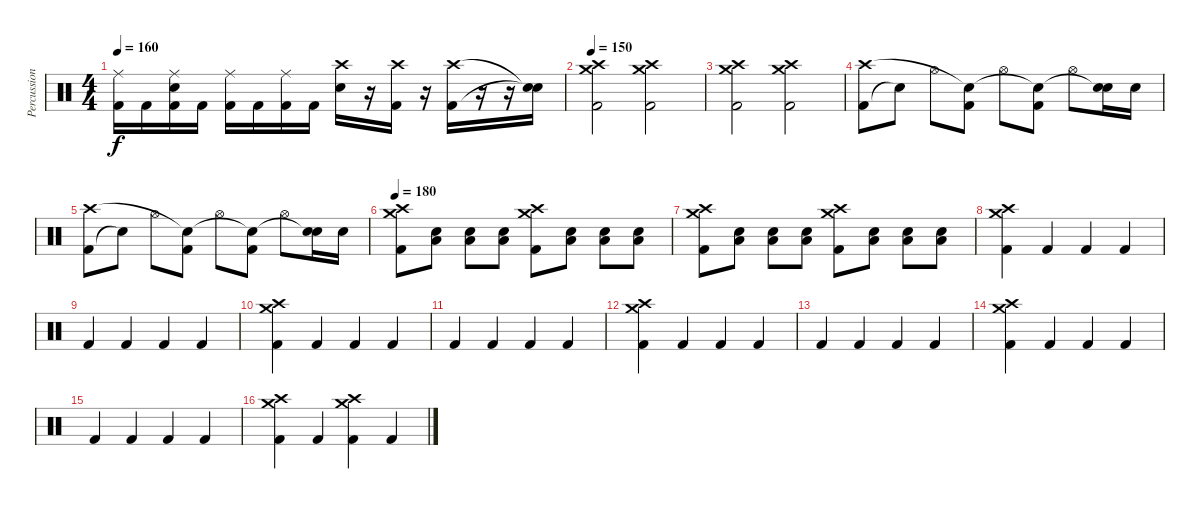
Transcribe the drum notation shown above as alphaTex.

\track ("Percussions" "Percussion") {instrument percussion}
\staff {score}
\articulation defaults
\ts (4 4)
\tempo 160
\clef neutral
\ks c
("Ride (middle)" "Kick (hit) 2").16{dy f} "Kick (hit) 2".16 ("Ride (middle)" "Electric Snare (hit)" "Kick (hit) 2"{t}).16 "Kick (hit) 2".16 ("Ride (middle)" "Kick (hit) 2").16 "Kick (hit) 2".16 ("Ride (middle)" "Kick (hit) 2").16 "Kick (hit) 2".16 ("Crash high (hit)" "Electric Snare (hit)").16 r.16 ("Crash high (hit)" "Kick (hit) 2").16 r.16 ("Crash high (hit)" "Kick (hit) 2").16 r.16 r.16 ("Snare (hit)"{t} "Snare (hit)"{t}).16 |
\tempo 150
("Kick (hit) 2" "Crash medium (hit)" "Crash high (hit)").2 ("Kick (hit) 2" "Crash medium (hit)" "Crash high (hit)").2 |
("Kick (hit) 2" "Crash medium (hit)" "Crash high (hit)").2 ("Kick (hit) 2" "Crash medium (hit)" "Crash high (hit)").2 |
("Kick (hit) 2" "Crash high (hit)").8 "Snare (hit)"{t}.8 "Hi-Hat (open)".8 ("Kick (hit) 2" "Snare (hit)"{t}).8 "Hi-Hat (open)".8 ("Kick (hit) 2" "Snare (hit)"{t}).8 "Hi-Hat (open)".8 ("Snare (hit) 2" "Snare (hit)"{t}).16 "Snare (hit) 2".16 |
("Kick (hit) 2" "Crash high (hit)").8 "Snare (hit)"{t}.8 "Hi-Hat (open)".8 ("Kick (hit) 2" "Snare (hit)"{t}).8 "Hi-Hat (open)".8 ("Kick (hit) 2" "Snare (hit)"{t}).8 "Hi-Hat (open)".8 ("Snare (hit) 2" "Snare (hit)"{t}).16 "Snare (hit) 2".16 |
\tempo 180
("Kick (hit) 2" "Crash medium (hit)" "Crash high (hit)").8 ("Snare (hit) 2" "Low Floor Tom (hit)").8 ("Snare (hit) 2" "Low Floor Tom (hit)").8 ("Snare (hit) 2" "Low Floor Tom (hit)").8 ("Kick (hit) 2" "Crash medium (hit)" "Crash high (hit)").8 ("Snare (hit) 2" "Low Floor Tom (hit)").8 ("Snare (hit) 2" "Low Floor Tom (hit)").8 ("Snare (hit) 2" "Low Floor Tom (hit)").8 |
("Kick (hit) 2" "Crash medium (hit)" "Crash high (hit)").8 ("Snare (hit) 2" "Low Floor Tom (hit)").8 ("Snare (hit) 2" "Low Floor Tom (hit)").8 ("Snare (hit) 2" "Low Floor Tom (hit)").8 ("Kick (hit) 2" "Crash medium (hit)" "Crash high (hit)").8 ("Snare (hit) 2" "Low Floor Tom (hit)").8 ("Snare (hit) 2" "Low Floor Tom (hit)").8 ("Snare (hit) 2" "Low Floor Tom (hit)").8 |
("Crash high (hit)" "Crash medium (hit)" "Kick (hit) 2").4 "Kick (hit) 2".4 "Kick (hit) 2".4 "Kick (hit) 2".4 |
"Kick (hit) 2".4 "Kick (hit) 2".4 "Kick (hit) 2".4 "Kick (hit) 2".4 |
("Crash high (hit)" "Crash medium (hit)" "Kick (hit) 2").4 "Kick (hit) 2".4 "Kick (hit) 2".4 "Kick (hit) 2".4 |
"Kick (hit) 2".4 "Kick (hit) 2".4 "Kick (hit) 2".4 "Kick (hit) 2".4 |
("Crash high (hit)" "Crash medium (hit)" "Kick (hit) 2").4 "Kick (hit) 2".4 "Kick (hit) 2".4 "Kick (hit) 2".4 |
"Kick (hit) 2".4 "Kick (hit) 2".4 "Kick (hit) 2".4 "Kick (hit) 2".4 |
("Crash high (hit)" "Crash medium (hit)" "Kick (hit) 2").4 "Kick (hit) 2".4 "Kick (hit) 2".4 "Kick (hit) 2".4 |
"Kick (hit) 2".4 "Kick (hit) 2".4 "Kick (hit) 2".4 "Kick (hit) 2".4 |
("Crash high (hit)" "Crash medium (hit)" "Kick (hit) 2").4 "Kick (hit) 2".4 ("Crash high (hit)" "Crash medium (hit)" "Kick (hit) 2").4 "Kick (hit) 2".4
